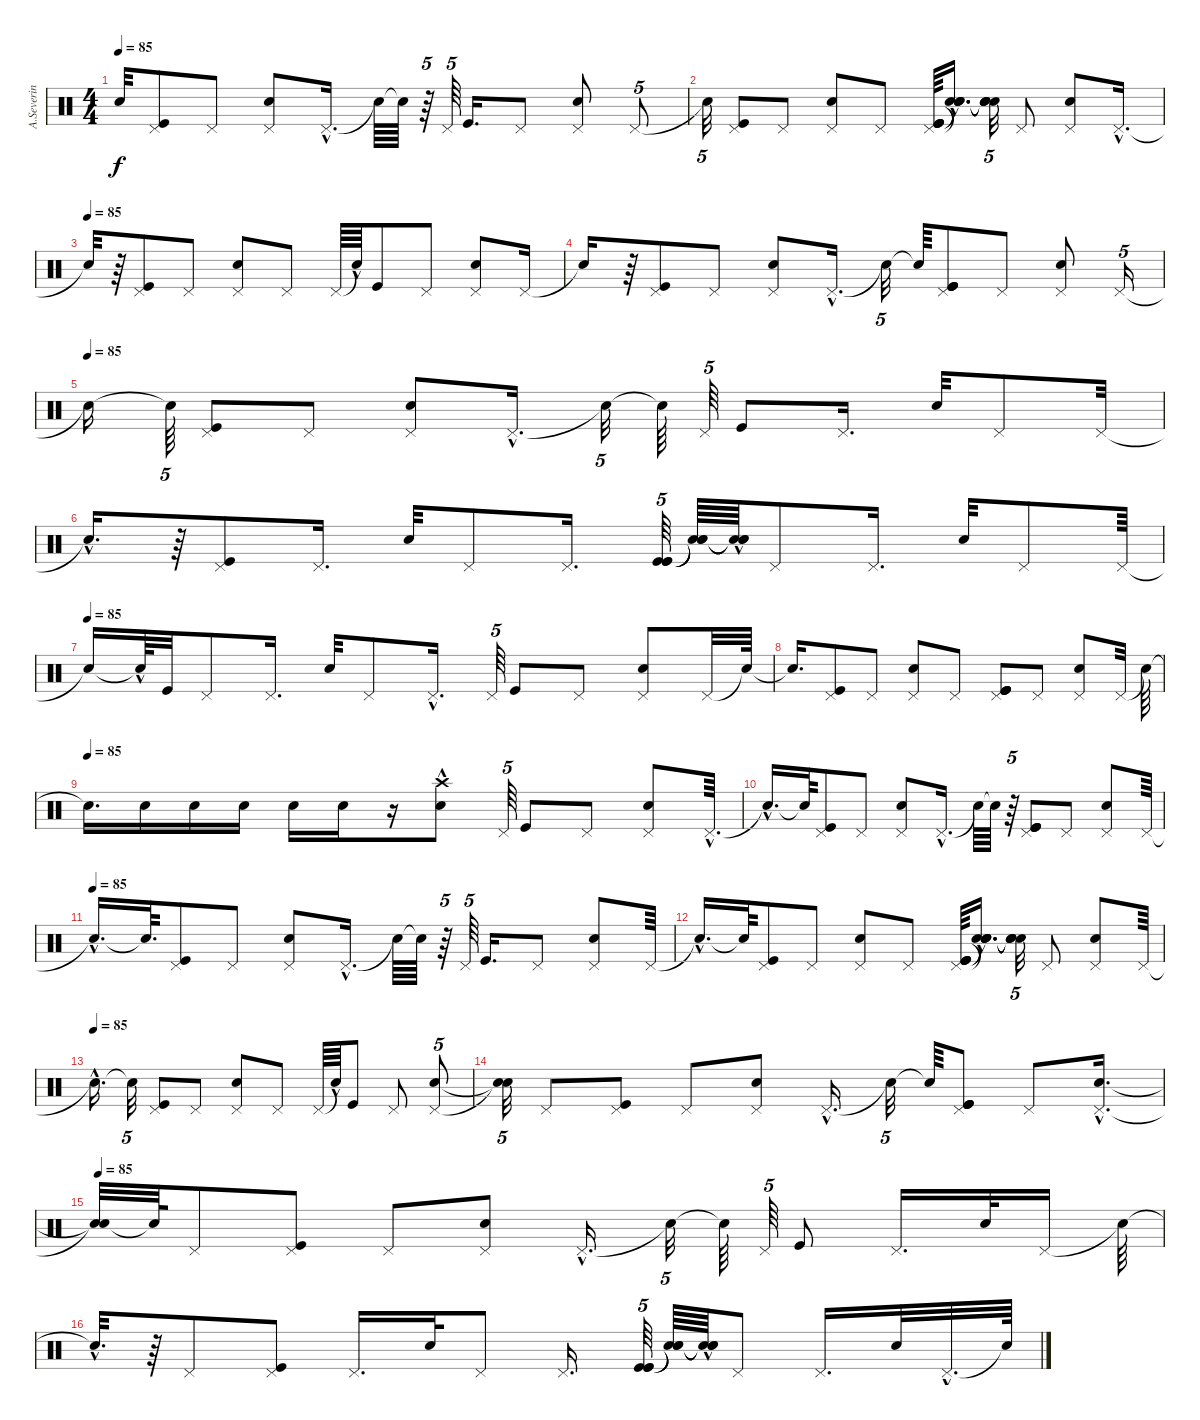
\track ("A.Severin        Drums                  " "A.Severin ") {instrument percussion}
\staff {score}
\articulation defaults
\ts (4 4)
\tempo 85
\clef neutral
\ks c "Snare (hit)"{t}.32{dy f}
("Kick (hit)" "Pedal Hi-Hat (hit)").8 "Pedal Hi-Hat (hit)".8 ("Electric Snare (hit)" "Pedal Hi-Hat (hit)").8 "Pedal Hi-Hat (hit)"{hac}.16{d} "Snare (hit)"{t}.64 "Snare (hit)"{t}.64 r.64{tu (5 4)} "Pedal Hi-Hat (hit)".64{tu (5 4)} "Kick (hit)".16{d} "Pedal Hi-Hat (hit)".8 ("Electric Snare (hit)" "Pedal Hi-Hat (hit)").8 "Pedal Hi-Hat (hit)".8{tu (5 4)} |
"Snare (hit)"{t}.32{tu (5 4)} ("Pedal Hi-Hat (hit)" "Kick (hit)").8 "Pedal Hi-Hat (hit)".8 ("Electric Snare (hit)" "Pedal Hi-Hat (hit)").8 "Pedal Hi-Hat (hit)".8 ("Kick (hit)" "Kick (hit)" "Kick (hit)" "Pedal Hi-Hat (hit)").64 ("Snare (hit)"{hac t} "Snare (hit)"{hac t} "Snare (hit)"{hac t} "Snare (hit)"{hac t}).16{d} ("Snare (hit)"{t} "Snare (hit)"{t} "Snare (hit)"{t} "Snare (hit)"{t}).32{tu (5 4)} "Pedal Hi-Hat (hit)".8 ("Electric Snare (hit)" "Pedal Hi-Hat (hit)").8 "Pedal Hi-Hat (hit)"{hac}.16{d} |
\tempo (85)
"Snare (hit)"{t}.32 r.64 ("Kick (hit)" "Pedal Hi-Hat (hit)").8 "Pedal Hi-Hat (hit)".8 ("Electric Snare (hit)" "Pedal Hi-Hat (hit)").8 "Pedal Hi-Hat (hit)".8 "Pedal Hi-Hat (hit)".64 "Snare (hit)"{hac t}.64 "Kick (hit)".8 "Pedal Hi-Hat (hit)".8 ("Electric Snare (hit)" "Pedal Hi-Hat (hit)").8 "Pedal Hi-Hat (hit)".16 |
"Snare (hit)"{t}.16 r.64 ("Pedal Hi-Hat (hit)" "Kick (hit)").8 "Pedal Hi-Hat (hit)".8 ("Electric Snare (hit)" "Pedal Hi-Hat (hit)").8 "Pedal Hi-Hat (hit)"{hac}.16{d} "Snare (hit)"{t}.32{tu (5 4)} "Snare (hit)"{t}.64 ("Kick (hit)" "Kick (hit)" "Kick (hit)" "Pedal Hi-Hat (hit)").8 "Pedal Hi-Hat (hit)".8 ("Electric Snare (hit)" "Pedal Hi-Hat (hit)").8 "Pedal Hi-Hat (hit)".16{tu (5 4)} |
\tempo (85)
"Snare (hit)"{t}.16 "Snare (hit)"{t}.64{tu (5 4)} ("Kick (hit)" "Pedal Hi-Hat (hit)").8 "Pedal Hi-Hat (hit)".8 ("Electric Snare (hit)" "Pedal Hi-Hat (hit)").8 "Pedal Hi-Hat (hit)"{hac}.16{d} "Snare (hit)"{t}.32{tu (5 4)} "Snare (hit)"{t}.64 "Pedal Hi-Hat (hit)".64{tu (5 4)} "Kick (hit)".8 "Pedal Hi-Hat (hit)".16{d} "Electric Snare (hit)".32 "Pedal Hi-Hat (hit)".8 "Pedal Hi-Hat (hit)".32 |
"Snare (hit)"{hac t}.16{d} r.64 ("Pedal Hi-Hat (hit)" "Kick (hit)").8 "Pedal Hi-Hat (hit)".16{d} "Electric Snare (hit)".32 "Pedal Hi-Hat (hit)".8 "Pedal Hi-Hat (hit)".16{d} ("Kick (hit)" "Kick (hit)" "Kick (hit)").64{tu (5 4)} ("Snare (hit)"{t} "Snare (hit)"{t} "Snare (hit)"{t}).64 ("Snare (hit)"{hac t} "Snare (hit)"{hac t} "Snare (hit)"{hac t}).64 "Pedal Hi-Hat (hit)".8 "Pedal Hi-Hat (hit)".16{d} "Electric Snare (hit)".32 "Pedal Hi-Hat (hit)".8 "Pedal Hi-Hat (hit)".64 |
\tempo (85)
"Snare (hit)"{t}.16 "Snare (hit)"{hac t}.64 "Kick (hit)".32 "Pedal Hi-Hat (hit)".8 "Pedal Hi-Hat (hit)".16{d} "Electric Snare (hit)".32 "Pedal Hi-Hat (hit)".8 "Pedal Hi-Hat (hit)"{hac}.16{d} "Pedal Hi-Hat (hit)".64{tu (5 4)} "Kick (hit)".8 "Pedal Hi-Hat (hit)".8 ("Electric Snare (hit)" "Pedal Hi-Hat (hit)").8 "Pedal Hi-Hat (hit)".32 "Snare (hit)"{t}.64 |
"Snare (hit)"{t}.16{d} ("Kick (hit)" "Pedal Hi-Hat (hit)").8 "Pedal Hi-Hat (hit)".8 ("Electric Snare (hit)" "Pedal Hi-Hat (hit)").8 "Pedal Hi-Hat (hit)".8 ("Kick (hit)" "Kick (hit)" "Kick (hit)" "Pedal Hi-Hat (hit)").8 "Pedal Hi-Hat (hit)".8 ("Electric Snare (hit)" "Pedal Hi-Hat (hit)").8 "Pedal Hi-Hat (hit)".32 "Snare (hit)"{t}.64 |
\tempo (85)
"Snare (hit)"{t}.16{d} "Electric Snare (hit)".16 "Electric Snare (hit)".16 "Electric Snare (hit)".16 "Electric Snare (hit)".16 "Electric Snare (hit)".16 r.16 ("Crash high (hit)"{hac} "Electric Snare (hit)").8 "Pedal Hi-Hat (hit)".64{tu (5 4)} "Kick (hit)".8 "Pedal Hi-Hat (hit)".8 ("Electric Snare (hit)" "Pedal Hi-Hat (hit)").8 "Pedal Hi-Hat (hit)"{hac}.64{d} |
"Snare (hit)"{hac t}.16{d} "Snare (hit)"{t}.64 ("Pedal Hi-Hat (hit)" "Kick (hit)").8 "Pedal Hi-Hat (hit)".8 ("Electric Snare (hit)" "Pedal Hi-Hat (hit)").8 "Pedal Hi-Hat (hit)"{hac}.16{d} "Snare (hit)"{t}.64 "Snare (hit)"{t}.64 r.64{tu (5 4)} ("Kick (hit)" "Kick (hit)" "Kick (hit)" "Pedal Hi-Hat (hit)").8 "Pedal Hi-Hat (hit)".8 ("Electric Snare (hit)" "Pedal Hi-Hat (hit)").8 "Pedal Hi-Hat (hit)".64 |
\tempo (85)
"Snare (hit)"{hac t}.16{d} "Snare (hit)"{t}.64{d} ("Kick (hit)" "Pedal Hi-Hat (hit)").8 "Pedal Hi-Hat (hit)".8 ("Electric Snare (hit)" "Pedal Hi-Hat (hit)").8 "Pedal Hi-Hat (hit)"{hac}.16{d} "Snare (hit)"{t}.64 "Snare (hit)"{t}.64 r.64{tu (5 4)} "Pedal Hi-Hat (hit)".64{tu (5 4)} "Kick (hit)".16{d} "Pedal Hi-Hat (hit)".8 ("Electric Snare (hit)" "Pedal Hi-Hat (hit)").8 "Pedal Hi-Hat (hit)".64 |
"Snare (hit)"{hac t}.16{d} "Snare (hit)"{t}.64 ("Kick (hit)" "Pedal Hi-Hat (hit)").8 "Pedal Hi-Hat (hit)".8 ("Electric Snare (hit)" "Pedal Hi-Hat (hit)").8 "Pedal Hi-Hat (hit)".8 ("Kick (hit)" "Kick (hit)" "Kick (hit)" "Pedal Hi-Hat (hit)").64 ("Snare (hit)"{hac t} "Snare (hit)"{hac t} "Snare (hit)"{hac t} "Snare (hit)"{hac t}).16{d} ("Snare (hit)"{t} "Snare (hit)"{t} "Snare (hit)"{t} "Snare (hit)"{t}).32{tu (5 4)} "Pedal Hi-Hat (hit)".8 ("Electric Snare (hit)" "Pedal Hi-Hat (hit)").8 "Pedal Hi-Hat (hit)".64 |
\tempo (85)
"Snare (hit)"{hac t}.16{d} "Snare (hit)"{t}.32{tu (5 4)} ("Kick (hit)" "Pedal Hi-Hat (hit)").8 "Pedal Hi-Hat (hit)".8 ("Electric Snare (hit)" "Pedal Hi-Hat (hit)").8 "Pedal Hi-Hat (hit)".8 "Pedal Hi-Hat (hit)".64 "Snare (hit)"{hac t}.64 "Kick (hit)".8 "Pedal Hi-Hat (hit)".8 ("Electric Snare (hit)" "Pedal Hi-Hat (hit)").8{tu (5 4)} |
("Snare (hit)"{t} "Snare (hit)"{t}).32{tu (5 4)} "Pedal Hi-Hat (hit)".8 ("Pedal Hi-Hat (hit)" "Kick (hit)").8 "Pedal Hi-Hat (hit)".8 ("Electric Snare (hit)" "Pedal Hi-Hat (hit)").8 "Pedal Hi-Hat (hit)"{hac}.16{d} "Snare (hit)"{t}.32{tu (5 4)} "Snare (hit)"{t}.64 ("Kick (hit)" "Kick (hit)" "Kick (hit)" "Pedal Hi-Hat (hit)").8 "Pedal Hi-Hat (hit)".8 ("Electric Snare (hit)"{hac} "Pedal Hi-Hat (hit)"{hac}).16{d} |
\tempo 85
("Snare (hit)"{t} "Snare (hit)"{t}).32 "Snare (hit)"{t}.64 "Pedal Hi-Hat (hit)".8 ("Kick (hit)" "Pedal Hi-Hat (hit)").8 "Pedal Hi-Hat (hit)".8 ("Electric Snare (hit)" "Pedal Hi-Hat (hit)").8 "Pedal Hi-Hat (hit)"{hac}.16{d} "Snare (hit)"{t}.32{tu (5 4)} "Snare (hit)"{t}.64 "Pedal Hi-Hat (hit)".64{tu (5 4)} "Kick (hit)".8 "Pedal Hi-Hat (hit)".16{d} "Electric Snare (hit)".32 "Pedal Hi-Hat (hit)".16 "Snare (hit)"{t}.64 |
"Snare (hit)"{hac t}.32{d} r.64 "Pedal Hi-Hat (hit)".8 ("Pedal Hi-Hat (hit)" "Kick (hit)").8 "Pedal Hi-Hat (hit)".16{d} "Electric Snare (hit)".32 "Pedal Hi-Hat (hit)".8 "Pedal Hi-Hat (hit)".16{d} ("Kick (hit)" "Kick (hit)" "Kick (hit)").64{tu (5 4)} ("Snare (hit)"{t} "Snare (hit)"{t} "Snare (hit)"{t}).64 ("Snare (hit)"{hac t} "Snare (hit)"{hac t} "Snare (hit)"{hac t}).64 "Pedal Hi-Hat (hit)".8 "Pedal Hi-Hat (hit)".16{d} "Electric Snare (hit)".32 "Pedal Hi-Hat (hit)"{hac}.32{d} "Snare (hit)"{t}.64
